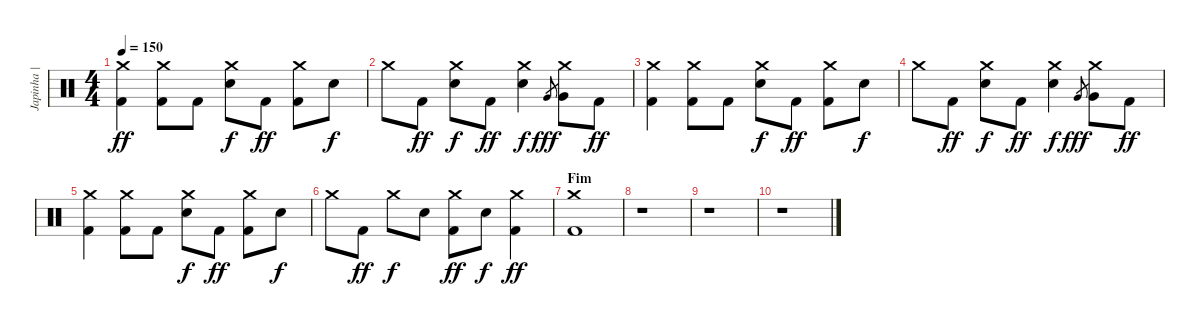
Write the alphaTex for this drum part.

\track ("Japinha | Bateria" "Japinha | ") {instrument percussion}
\staff {score}
\articulation defaults
\ts (4 4)
\tempo 150
\clef neutral
\ks c
("Crash medium (hit)" "Kick (hit) 2").4{dy ff} ("Crash medium (hit)" "Kick (hit) 2").8 "Kick (hit) 2".8 ("Crash medium (hit)" "Electric Snare (hit)").8{dy f} "Kick (hit) 2".8{dy ff} ("Crash medium (hit)" "Kick (hit) 2").8 "Electric Snare (hit)".8{dy f} |
"Crash medium (hit)".8 "Kick (hit) 2".8{dy ff} ("Crash medium (hit)" "Electric Snare (hit)").8{dy f} "Kick (hit) 2".8{dy ff} ("Crash medium (hit)" "Electric Snare (hit)").4{dy f} "Very Low Tom (hit)".8{gr dy fff} ("Crash medium (hit)" "Very Low Tom (hit)").8 "Kick (hit) 2".8{dy ff} |
("Crash medium (hit)" "Kick (hit) 2").4 ("Crash medium (hit)" "Kick (hit) 2").8 "Kick (hit) 2".8 ("Crash medium (hit)" "Electric Snare (hit)").8{dy f} "Kick (hit) 2".8{dy ff} ("Crash medium (hit)" "Kick (hit) 2").8 "Electric Snare (hit)".8{dy f} |
"Crash medium (hit)".8 "Kick (hit) 2".8{dy ff} ("Crash medium (hit)" "Electric Snare (hit)").8{dy f} "Kick (hit) 2".8{dy ff} ("Crash medium (hit)" "Electric Snare (hit)").4{dy f} "Very Low Tom (hit)".8{gr dy fff} ("Crash medium (hit)" "Very Low Tom (hit)").8 "Kick (hit) 2".8{dy ff} |
("Crash medium (hit)" "Kick (hit) 2").4 ("Crash medium (hit)" "Kick (hit) 2").8 "Kick (hit) 2".8 ("Crash medium (hit)" "Electric Snare (hit)").8{dy f} "Kick (hit) 2".8{dy ff} ("Crash medium (hit)" "Kick (hit) 2").8 "Electric Snare (hit)".8{dy f} |
"Crash medium (hit)".8 "Kick (hit) 2".8{dy ff} "Crash medium (hit)".8{dy f} "Electric Snare (hit)".8 ("Crash medium (hit)" "Kick (hit) 2").8{dy ff} "Electric Snare (hit)".8{dy f} ("Crash medium (hit)" "Kick (hit) 2").4{dy ff} |
\section ("" "Fim")
("Crash medium (hit)" "Kick (hit) 2").1 |
r.1 |
r.1 |
r.1
